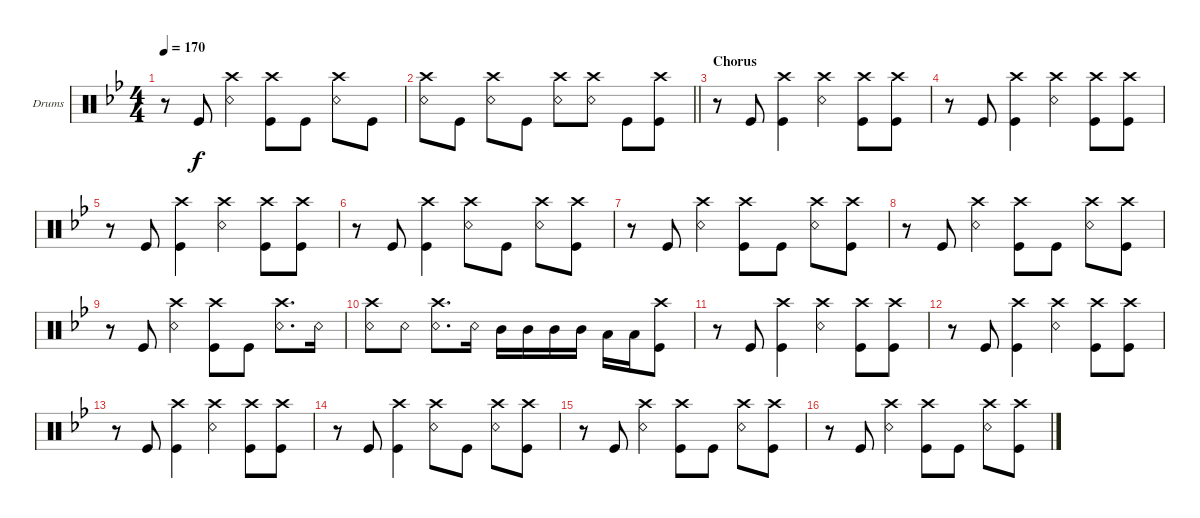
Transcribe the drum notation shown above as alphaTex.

\defaultSystemsLayout 4
\bracketExtendMode groupsimilarinstruments
\firstSystemTrackNameOrientation horizontal
\otherSystemsTrackNameOrientation horizontal
\track ("Drums" "Drums") {instrument percussion}
\staff {score}
\articulation defaults
\ts (4 4)
\tempo 170
\clef neutral
\ks bb
r.8{dy f} "Kick (hit)".8 ("Snare (rim shot)" "Crash high (hit)").4 ("Kick (hit)" "Crash high (hit)").8 "Kick (hit)".8 ("Snare (rim shot)" "Crash high (hit)").8 "Kick (hit)".8 |
\barLineRight lightlight
("Snare (rim shot)" "Crash high (hit)").8 "Kick (hit)".8 ("Snare (rim shot)" "Crash high (hit)").8 "Kick (hit)".8 ("Snare (rim shot)" "Crash high (hit)").8 ("Snare (rim shot)" "Crash high (hit)").8 "Kick (hit)".8 ("Kick (hit)" "Crash high (hit)").8 |
\section ("" "Chorus")
r.8 "Kick (hit)".8 ("Kick (hit)" "Crash high (hit)").4 ("Snare (rim shot)" "Crash high (hit)").4 ("Kick (hit)" "Crash high (hit)").8 ("Kick (hit)" "Crash high (hit)").8 |
r.8 "Kick (hit)".8 ("Kick (hit)" "Crash high (hit)").4 ("Snare (rim shot)" "Crash high (hit)").4 ("Kick (hit)" "Crash high (hit)").8 ("Kick (hit)" "Crash high (hit)").8 |
r.8 "Kick (hit)".8 ("Kick (hit)" "Crash high (hit)").4 ("Snare (rim shot)" "Crash high (hit)").4 ("Kick (hit)" "Crash high (hit)").8 ("Kick (hit)" "Crash high (hit)").8 |
r.8 "Kick (hit)".8 ("Kick (hit)" "Crash high (hit)").4 ("Snare (rim shot)" "Crash high (hit)").8 "Kick (hit)".8 ("Snare (rim shot)" "Crash high (hit)").8 ("Kick (hit)" "Crash high (hit)").8 |
r.8 "Kick (hit)".8 ("Snare (rim shot)" "Crash high (hit)").4 ("Kick (hit)" "Crash high (hit)").8 "Kick (hit)".8 ("Snare (rim shot)" "Crash high (hit)").8 ("Kick (hit)" "Crash high (hit)").8 |
r.8 "Kick (hit)".8 ("Snare (rim shot)" "Crash high (hit)").4 ("Kick (hit)" "Crash high (hit)").8 "Kick (hit)".8 ("Snare (rim shot)" "Crash high (hit)").8 ("Kick (hit)" "Crash high (hit)").8 |
r.8 "Kick (hit)".8 ("Snare (rim shot)" "Crash high (hit)").4 ("Kick (hit)" "Crash high (hit)").8 "Kick (hit)".8 ("Snare (rim shot)" "Crash high (hit)").8{d} "Snare (rim shot)".16 |
("Crash high (hit)" "Snare (rim shot)").8 "Snare (rim shot)".8 ("Snare (rim shot)" "Crash high (hit)").8{d} "Snare (rim shot)".16 "Mid Tom (hit)".16 "Mid Tom (hit)".16 "Mid Tom (hit)".16 "Mid Tom (hit)".16 "Low Tom (hit)".16 "Low Tom (hit)".16 ("Kick (hit)" "Crash high (hit)").8 |
r.8 "Kick (hit)".8 ("Kick (hit)" "Crash high (hit)").4 ("Snare (rim shot)" "Crash high (hit)").4 ("Kick (hit)" "Crash high (hit)").8 ("Kick (hit)" "Crash high (hit)").8 |
r.8 "Kick (hit)".8 ("Kick (hit)" "Crash high (hit)").4 ("Snare (rim shot)" "Crash high (hit)").4 ("Kick (hit)" "Crash high (hit)").8 ("Kick (hit)" "Crash high (hit)").8 |
r.8 "Kick (hit)".8 ("Kick (hit)" "Crash high (hit)").4 ("Snare (rim shot)" "Crash high (hit)").4 ("Kick (hit)" "Crash high (hit)").8 ("Kick (hit)" "Crash high (hit)").8 |
r.8 "Kick (hit)".8 ("Kick (hit)" "Crash high (hit)").4 ("Snare (rim shot)" "Crash high (hit)").8 "Kick (hit)".8 ("Snare (rim shot)" "Crash high (hit)").8 ("Kick (hit)" "Crash high (hit)").8 |
r.8 "Kick (hit)".8 ("Snare (rim shot)" "Crash high (hit)").4 ("Kick (hit)" "Crash high (hit)").8 "Kick (hit)".8 ("Snare (rim shot)" "Crash high (hit)").8 ("Kick (hit)" "Crash high (hit)").8 |
r.8 "Kick (hit)".8 ("Snare (rim shot)" "Crash high (hit)").4 ("Kick (hit)" "Crash high (hit)").8 "Kick (hit)".8 ("Snare (rim shot)" "Crash high (hit)").8 ("Kick (hit)" "Crash high (hit)").8
